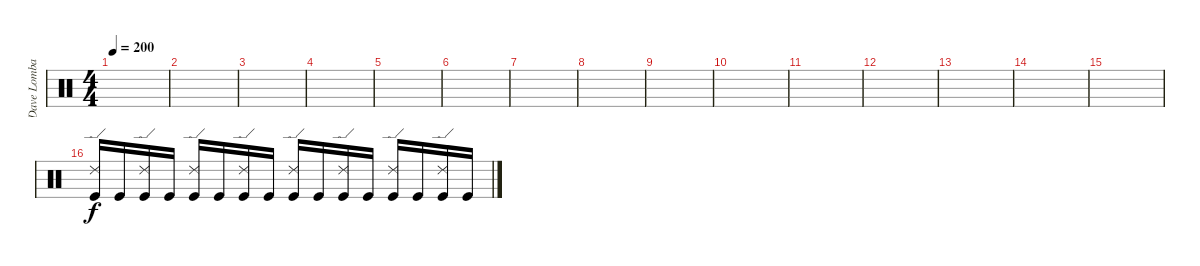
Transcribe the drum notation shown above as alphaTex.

\track ("Dave Lombardo:" "Dave Lomba") {instrument percussion}
\staff {score}
\articulation defaults
\ts (4 4)
\tempo 200
\clef neutral
\ks c
|
|
|
|
|
|
|
|
|
|
|
|
|
|
|
("Ride (edge) 2" "Kick (hit)").16 "Kick (hit)".16 ("Ride (edge) 2" "Kick (hit)").16 "Kick (hit)".16 ("Ride (edge) 2" "Kick (hit)").16 "Kick (hit)".16 ("Ride (edge) 2" "Kick (hit)").16 "Kick (hit)".16 ("Ride (edge) 2" "Kick (hit)").16 "Kick (hit)".16 ("Ride (edge) 2" "Kick (hit)").16 "Kick (hit)".16 ("Ride (edge) 2" "Kick (hit)").16 "Kick (hit)".16 ("Ride (edge) 2" "Kick (hit)").16 "Kick (hit)".16
